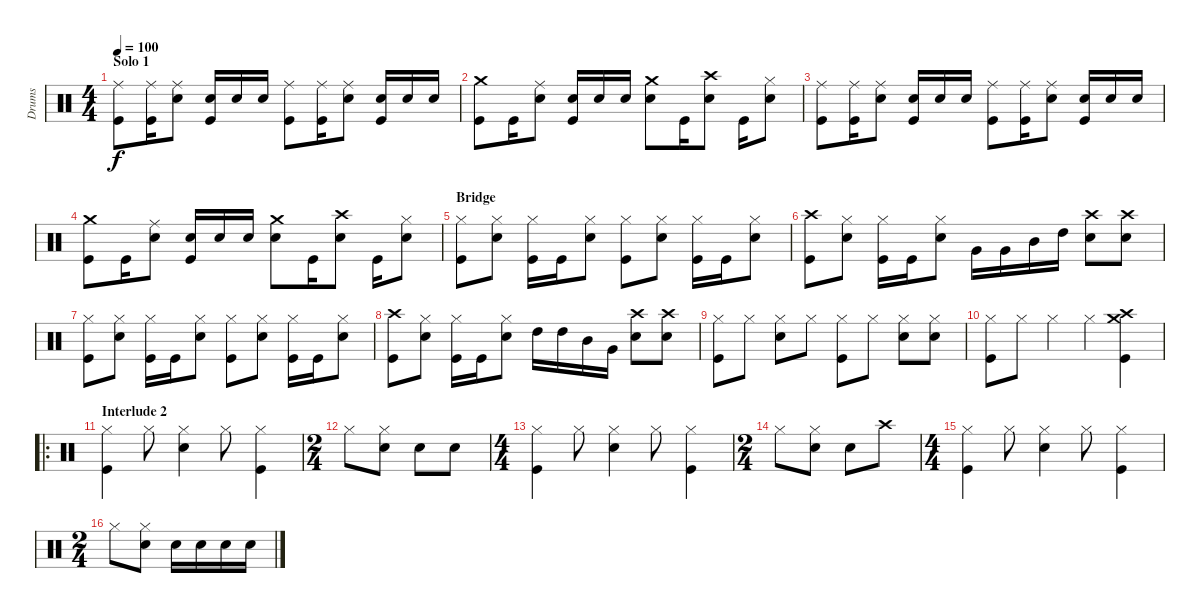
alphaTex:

\track ("Drums" "Drums") {instrument percussion}
\staff {score}
\articulation defaults
\ts (4 4)
\section ("" "Solo 1")
\tempo 100
\clef neutral
\ks c
("Ride (middle)" "Kick (hit)").8{dy f} ("Ride (middle)" "Kick (hit)").16 ("Ride (middle)" "Electric Snare (hit)").8 ("Electric Snare (hit)" "Kick (hit)").16 "Electric Snare (hit)".16 "Electric Snare (hit)".16 ("Ride (middle)" "Kick (hit)").8 ("Ride (middle)" "Kick (hit)").16 ("Ride (middle)" "Electric Snare (hit)").8 ("Electric Snare (hit)" "Kick (hit)").16 "Electric Snare (hit)".16 "Electric Snare (hit)".16 |
("Crash medium (hit)" "Kick (hit)").8 "Kick (hit)".16 ("Ride (middle)" "Electric Snare (hit)").8 ("Electric Snare (hit)" "Kick (hit)").16 "Electric Snare (hit)".16 "Electric Snare (hit)".16 ("Crash medium (hit)" "Electric Snare (hit)").8 "Kick (hit)".16 ("Crash high (hit)" "Electric Snare (hit)").8 "Kick (hit)".16 ("Hi-Hat (closed)" "Electric Snare (hit)").8 |
("Ride (middle)" "Kick (hit)").8 ("Ride (middle)" "Kick (hit)").16 ("Ride (middle)" "Electric Snare (hit)").8 ("Electric Snare (hit)" "Kick (hit)").16 "Electric Snare (hit)".16 "Electric Snare (hit)".16 ("Ride (middle)" "Kick (hit)").8 ("Ride (middle)" "Kick (hit)").16 ("Ride (middle)" "Electric Snare (hit)").8 ("Electric Snare (hit)" "Kick (hit)").16 "Electric Snare (hit)".16 "Electric Snare (hit)".16 |
("Crash medium (hit)" "Kick (hit)").8 "Kick (hit)".16 ("Ride (middle)" "Electric Snare (hit)").8 ("Electric Snare (hit)" "Kick (hit)").16 "Electric Snare (hit)".16 "Electric Snare (hit)".16 ("Crash medium (hit)" "Electric Snare (hit)").8 "Kick (hit)".16 ("Crash high (hit)" "Electric Snare (hit)").8 "Kick (hit)".16 ("Hi-Hat (closed)" "Electric Snare (hit)").8 |
\section ("" "Bridge")
("Hi-Hat (closed)" "Kick (hit)").8 ("Hi-Hat (closed)" "Electric Snare (hit)").8 ("Hi-Hat (closed)" "Kick (hit)").16 "Kick (hit)".16 ("Hi-Hat (closed)" "Electric Snare (hit)").8 ("Hi-Hat (closed)" "Kick (hit)").8 ("Hi-Hat (closed)" "Electric Snare (hit)").8 ("Hi-Hat (closed)" "Kick (hit)").16 "Kick (hit)".16 ("Hi-Hat (closed)" "Electric Snare (hit)").8 |
("Crash high (hit)" "Kick (hit)").8 ("Hi-Hat (closed)" "Electric Snare (hit)").8 ("Hi-Hat (closed)" "Kick (hit)").16 "Kick (hit)".16 ("Hi-Hat (closed)" "Electric Snare (hit)").8 "Very Low Tom (hit)".16 "Very Low Tom (hit)".16 "Mid Tom (hit)".16 "High Tom (hit)".16 ("Crash high (hit)" "Electric Snare (hit)").8 ("Crash high (hit)" "Electric Snare (hit)").8 |
("Hi-Hat (closed)" "Kick (hit)").8 ("Hi-Hat (closed)" "Electric Snare (hit)").8 ("Hi-Hat (closed)" "Kick (hit)").16 "Kick (hit)".16 ("Hi-Hat (closed)" "Electric Snare (hit)").8 ("Hi-Hat (closed)" "Kick (hit)").8 ("Hi-Hat (closed)" "Electric Snare (hit)").8 ("Hi-Hat (closed)" "Kick (hit)").16 "Kick (hit)".16 ("Hi-Hat (closed)" "Electric Snare (hit)").8 |
("Crash high (hit)" "Kick (hit)").8 ("Hi-Hat (closed)" "Electric Snare (hit)").8 ("Hi-Hat (closed)" "Kick (hit)").16 "Kick (hit)".16 ("Hi-Hat (closed)" "Electric Snare (hit)").8 "High Tom (hit)".16 "High Tom (hit)".16 "Mid Tom (hit)".16 "Very Low Tom (hit)".16 ("Crash high (hit)" "Electric Snare (hit)").8 ("Crash high (hit)" "Electric Snare (hit)").8 |
("Hi-Hat (closed)" "Kick (hit)").8 "Hi-Hat (closed)".8 ("Hi-Hat (closed)" "Electric Snare (hit)").8 "Hi-Hat (closed)".8 ("Hi-Hat (closed)" "Kick (hit)").8 "Hi-Hat (closed)".8 ("Hi-Hat (closed)" "Electric Snare (hit)").8 ("Hi-Hat (closed)" "Electric Snare (hit)").8 |
("Hi-Hat (closed)" "Kick (hit)").8 "Hi-Hat (closed)".8 "Hi-Hat (closed)".4 "Hi-Hat (closed)".4 ("Crash high (hit)" "Crash medium (hit)" "Kick (hit)").4 |
\ro
\section ("" "Interlude 2")
("Hi-Hat (closed)" "Kick (hit)").4 "Hi-Hat (closed)".8 ("Hi-Hat (closed)" "Electric Snare (hit)").4 "Hi-Hat (closed)".8 ("Hi-Hat (closed)" "Kick (hit)").4 |
\ts (2 4)
"Hi-Hat (closed)".8 ("Hi-Hat (closed)" "Electric Snare (hit)").8 "Electric Snare (hit)".8 "Electric Snare (hit)".8 |
\ts (4 4)
("Hi-Hat (closed)" "Kick (hit)").4 "Hi-Hat (closed)".8 ("Hi-Hat (closed)" "Electric Snare (hit)").4 "Hi-Hat (closed)".8 ("Hi-Hat (closed)" "Kick (hit)").4 |
\ts (2 4)
"Hi-Hat (closed)".8 ("Hi-Hat (closed)" "Electric Snare (hit)").8 "Electric Snare (hit)".8 "Crash high (hit)".8 |
\ts (4 4)
("Hi-Hat (closed)" "Kick (hit)").4 "Hi-Hat (closed)".8 ("Hi-Hat (closed)" "Electric Snare (hit)").4 "Hi-Hat (closed)".8 ("Hi-Hat (closed)" "Kick (hit)").4 |
\ts (2 4)
"Hi-Hat (closed)".8 ("Hi-Hat (closed)" "Electric Snare (hit)").8 "Electric Snare (hit)".16 "Electric Snare (hit)".16 "Electric Snare (hit)".16 "Electric Snare (hit)".16
